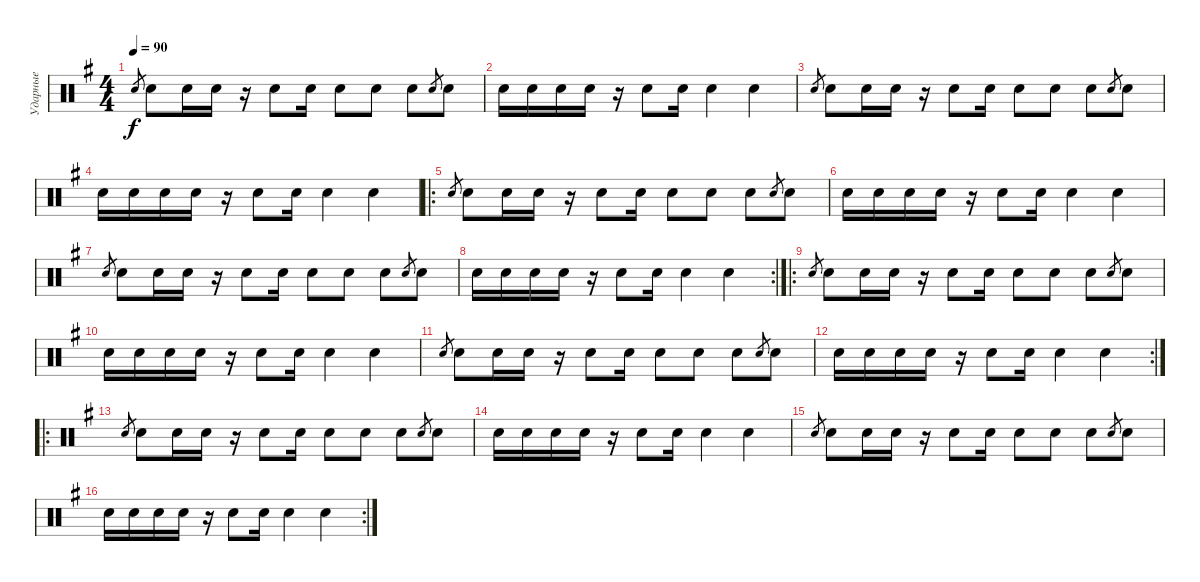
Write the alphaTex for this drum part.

\track ("Ударные" "Ударные") {instrument percussion}
\staff {score}
\articulation defaults
\ts (4 4)
\tempo 90
\clef neutral
\ks g "Snare (hit) 2".8{gr dy f} "Snare (hit) 2".8 "Snare (hit) 2".16 "Snare (hit) 2".16
r.16 "Snare (hit) 2".8 "Snare (hit) 2".16 "Snare (hit) 2".8 "Snare (hit) 2".8 "Snare (hit) 2".8 "Snare (hit) 2".8{gr} "Snare (hit) 2".8 |
"Snare (hit) 2".16 "Snare (hit) 2".16 "Snare (hit) 2".16 "Snare (hit) 2".16 r.16 "Snare (hit) 2".8 "Snare (hit) 2".16 "Snare (hit) 2".4 "Snare (hit) 2".4 |
"Snare (hit) 2".8{gr} "Snare (hit) 2".8 "Snare (hit) 2".16 "Snare (hit) 2".16 r.16 "Snare (hit) 2".8 "Snare (hit) 2".16 "Snare (hit) 2".8 "Snare (hit) 2".8 "Snare (hit) 2".8 "Snare (hit) 2".8{gr} "Snare (hit) 2".8 |
"Snare (hit) 2".16 "Snare (hit) 2".16 "Snare (hit) 2".16 "Snare (hit) 2".16 r.16 "Snare (hit) 2".8 "Snare (hit) 2".16 "Snare (hit) 2".4 "Snare (hit) 2".4 |
\ro "Snare (hit) 2".8{gr} "Snare (hit) 2".8 "Snare (hit) 2".16 "Snare (hit) 2".16
r.16 "Snare (hit) 2".8 "Snare (hit) 2".16 "Snare (hit) 2".8 "Snare (hit) 2".8 "Snare (hit) 2".8 "Snare (hit) 2".8{gr} "Snare (hit) 2".8 |
"Snare (hit) 2".16 "Snare (hit) 2".16 "Snare (hit) 2".16 "Snare (hit) 2".16 r.16 "Snare (hit) 2".8 "Snare (hit) 2".16 "Snare (hit) 2".4 "Snare (hit) 2".4 |
"Snare (hit) 2".8{gr} "Snare (hit) 2".8 "Snare (hit) 2".16 "Snare (hit) 2".16 r.16 "Snare (hit) 2".8 "Snare (hit) 2".16 "Snare (hit) 2".8 "Snare (hit) 2".8 "Snare (hit) 2".8 "Snare (hit) 2".8{gr} "Snare (hit) 2".8 |
\rc 2 "Snare (hit) 2".16 "Snare (hit) 2".16 "Snare (hit) 2".16 "Snare (hit) 2".16
r.16 "Snare (hit) 2".8 "Snare (hit) 2".16 "Snare (hit) 2".4 "Snare (hit) 2".4 |
\ro "Snare (hit) 2".8{gr} "Snare (hit) 2".8 "Snare (hit) 2".16 "Snare (hit) 2".16
r.16 "Snare (hit) 2".8 "Snare (hit) 2".16 "Snare (hit) 2".8 "Snare (hit) 2".8 "Snare (hit) 2".8 "Snare (hit) 2".8{gr} "Snare (hit) 2".8 |
"Snare (hit) 2".16 "Snare (hit) 2".16 "Snare (hit) 2".16 "Snare (hit) 2".16 r.16 "Snare (hit) 2".8 "Snare (hit) 2".16 "Snare (hit) 2".4 "Snare (hit) 2".4 |
"Snare (hit) 2".8{gr} "Snare (hit) 2".8 "Snare (hit) 2".16 "Snare (hit) 2".16 r.16 "Snare (hit) 2".8 "Snare (hit) 2".16 "Snare (hit) 2".8 "Snare (hit) 2".8 "Snare (hit) 2".8 "Snare (hit) 2".8{gr} "Snare (hit) 2".8 |
\rc 2 "Snare (hit) 2".16 "Snare (hit) 2".16 "Snare (hit) 2".16 "Snare (hit) 2".16
r.16 "Snare (hit) 2".8 "Snare (hit) 2".16 "Snare (hit) 2".4 "Snare (hit) 2".4 |
\ro "Snare (hit) 2".8{gr} "Snare (hit) 2".8 "Snare (hit) 2".16 "Snare (hit) 2".16
r.16 "Snare (hit) 2".8 "Snare (hit) 2".16 "Snare (hit) 2".8 "Snare (hit) 2".8 "Snare (hit) 2".8 "Snare (hit) 2".8{gr} "Snare (hit) 2".8 |
"Snare (hit) 2".16 "Snare (hit) 2".16 "Snare (hit) 2".16 "Snare (hit) 2".16 r.16 "Snare (hit) 2".8 "Snare (hit) 2".16 "Snare (hit) 2".4 "Snare (hit) 2".4 |
"Snare (hit) 2".8{gr} "Snare (hit) 2".8 "Snare (hit) 2".16 "Snare (hit) 2".16 r.16 "Snare (hit) 2".8 "Snare (hit) 2".16 "Snare (hit) 2".8 "Snare (hit) 2".8 "Snare (hit) 2".8 "Snare (hit) 2".8{gr} "Snare (hit) 2".8 |
\rc 2 "Snare (hit) 2".16 "Snare (hit) 2".16 "Snare (hit) 2".16 "Snare (hit) 2".16
r.16 "Snare (hit) 2".8 "Snare (hit) 2".16 "Snare (hit) 2".4 "Snare (hit) 2".4
